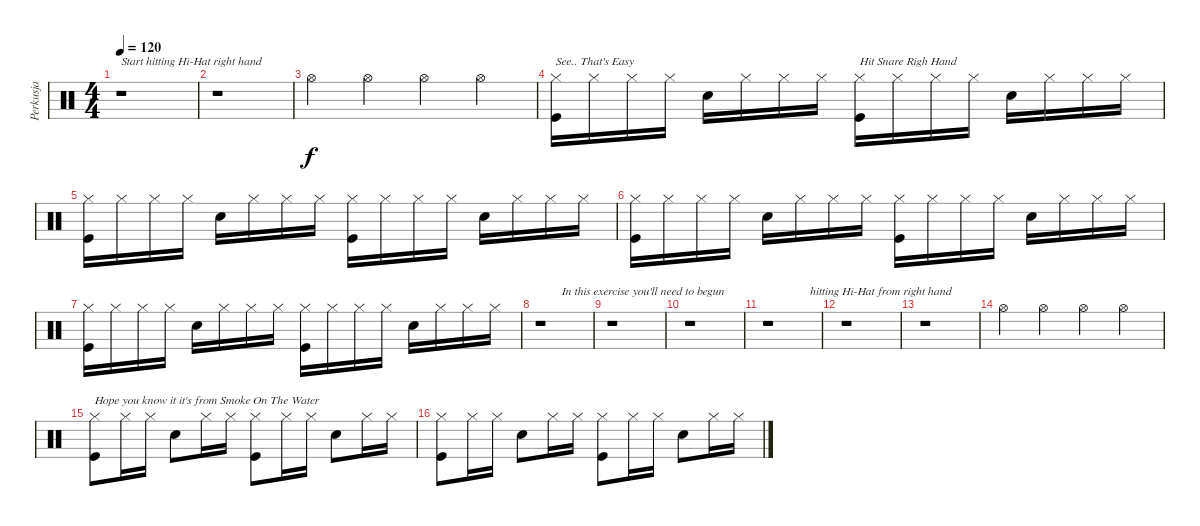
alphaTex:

\track ("Perkusja" "Perkusja") {instrument percussion}
\staff {score}
\articulation defaults
\ts (4 4)
\tempo 120
\clef neutral
\ks c
r.1{txt "Start hitting Hi-Hat right hand" dy f} |
r.1 |
"Hi-Hat (open)".4 "Hi-Hat (open)".4 "Hi-Hat (open)".4 "Hi-Hat (open)".4 |
("Hi-Hat (closed)" "Kick (hit)").16{txt "See.. That's Easy"} "Hi-Hat (closed)".16 "Hi-Hat (closed)".16 "Hi-Hat (closed)".16 "Electric Snare (hit)".16 "Hi-Hat (closed)".16 "Hi-Hat (closed)".16 "Hi-Hat (closed)".16 ("Hi-Hat (closed)" "Kick (hit)").16{txt "Hit Snare Righ Hand"} "Hi-Hat (closed)".16 "Hi-Hat (closed)".16 "Hi-Hat (closed)".16 "Electric Snare (hit)".16 "Hi-Hat (closed)".16 "Hi-Hat (closed)".16 "Hi-Hat (closed)".16 |
("Hi-Hat (closed)" "Kick (hit)").16 "Hi-Hat (closed)".16 "Hi-Hat (closed)".16 "Hi-Hat (closed)".16 "Electric Snare (hit)".16 "Hi-Hat (closed)".16 "Hi-Hat (closed)".16 "Hi-Hat (closed)".16 ("Hi-Hat (closed)" "Kick (hit)").16 "Hi-Hat (closed)".16 "Hi-Hat (closed)".16 "Hi-Hat (closed)".16 "Electric Snare (hit)".16 "Hi-Hat (closed)".16 "Hi-Hat (closed)".16 "Hi-Hat (closed)".16 |
("Hi-Hat (closed)" "Kick (hit)").16 "Hi-Hat (closed)".16 "Hi-Hat (closed)".16 "Hi-Hat (closed)".16 "Electric Snare (hit)".16 "Hi-Hat (closed)".16 "Hi-Hat (closed)".16 "Hi-Hat (closed)".16 ("Hi-Hat (closed)" "Kick (hit)").16 "Hi-Hat (closed)".16 "Hi-Hat (closed)".16 "Hi-Hat (closed)".16 "Electric Snare (hit)".16 "Hi-Hat (closed)".16 "Hi-Hat (closed)".16 "Hi-Hat (closed)".16 |
("Hi-Hat (closed)" "Kick (hit)").16 "Hi-Hat (closed)".16 "Hi-Hat (closed)".16 "Hi-Hat (closed)".16 "Electric Snare (hit)".16 "Hi-Hat (closed)".16 "Hi-Hat (closed)".16 "Hi-Hat (closed)".16 ("Hi-Hat (closed)" "Kick (hit)").16 "Hi-Hat (closed)".16 "Hi-Hat (closed)".16 "Hi-Hat (closed)".16 "Electric Snare (hit)".16 "Hi-Hat (closed)".16 "Hi-Hat (closed)".16 "Hi-Hat (closed)".16 |
r.1{txt "       In this exercise you'll need to begun"} |
r.1 |
r.1 |
r.1{txt "              hitting Hi-Hat from right hand"} |
r.1 |
r.1 |
"Hi-Hat (open)".4 "Hi-Hat (open)".4 "Hi-Hat (open)".4 "Hi-Hat (open)".4 |
("Hi-Hat (closed)" "Kick (hit)").8{txt "Hope you know it it's from Smoke On The Water"} "Hi-Hat (closed)".16 "Hi-Hat (closed)".16 "Electric Snare (hit)".8 "Hi-Hat (closed)".16 "Hi-Hat (closed)".16 ("Hi-Hat (closed)" "Kick (hit)").8 "Hi-Hat (closed)".16 "Hi-Hat (closed)".16 "Electric Snare (hit)".8 "Hi-Hat (closed)".16 "Hi-Hat (closed)".16 |
("Hi-Hat (closed)" "Kick (hit)").8 "Hi-Hat (closed)".16 "Hi-Hat (closed)".16 "Electric Snare (hit)".8 "Hi-Hat (closed)".16 "Hi-Hat (closed)".16 ("Hi-Hat (closed)" "Kick (hit)").8 "Hi-Hat (closed)".16 "Hi-Hat (closed)".16 "Electric Snare (hit)".8 "Hi-Hat (closed)".16 "Hi-Hat (closed)".16
